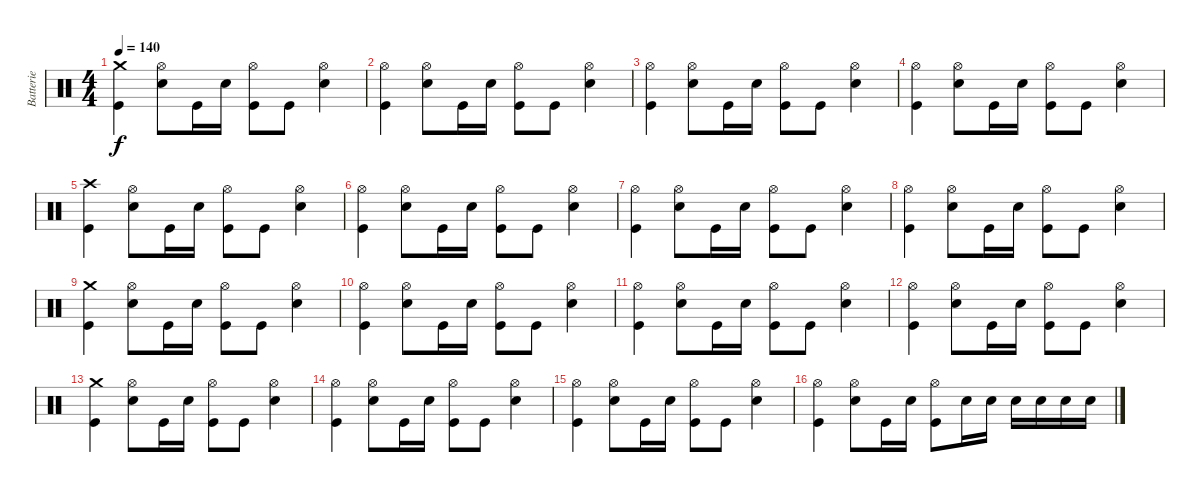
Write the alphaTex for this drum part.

\track ("Batterie" "Batterie") {instrument percussion}
\staff {score}
\articulation defaults
\ts (4 4)
\tempo 140
\clef neutral
\ks c
("Crash medium (hit)" "Kick (hit)").4{dy f} ("Hi-Hat (open)" "Electric Snare (hit)").8 "Kick (hit)".16 "Electric Snare (hit)".16 ("Hi-Hat (open)" "Kick (hit)").8 "Kick (hit)".8 ("Hi-Hat (open)" "Electric Snare (hit)").4 |
("Hi-Hat (open)" "Kick (hit)").4 ("Hi-Hat (open)" "Electric Snare (hit)").8 "Kick (hit)".16 "Electric Snare (hit)".16 ("Hi-Hat (open)" "Kick (hit)").8 "Kick (hit)".8 ("Hi-Hat (open)" "Electric Snare (hit)").4 |
("Hi-Hat (open)" "Kick (hit)").4 ("Hi-Hat (open)" "Electric Snare (hit)").8 "Kick (hit)".16 "Electric Snare (hit)".16 ("Hi-Hat (open)" "Kick (hit)").8 "Kick (hit)".8 ("Hi-Hat (open)" "Electric Snare (hit)").4 |
("Hi-Hat (open)" "Kick (hit)").4 ("Hi-Hat (open)" "Electric Snare (hit)").8 "Kick (hit)".16 "Electric Snare (hit)".16 ("Hi-Hat (open)" "Kick (hit)").8 "Kick (hit)".8 ("Hi-Hat (open)" "Electric Snare (hit)").4 |
("Crash high (hit)" "Kick (hit)").4 ("Hi-Hat (open)" "Electric Snare (hit)").8 "Kick (hit)".16 "Electric Snare (hit)".16 ("Hi-Hat (open)" "Kick (hit)").8 "Kick (hit)".8 ("Hi-Hat (open)" "Electric Snare (hit)").4 |
("Hi-Hat (open)" "Kick (hit)").4 ("Hi-Hat (open)" "Electric Snare (hit)").8 "Kick (hit)".16 "Electric Snare (hit)".16 ("Hi-Hat (open)" "Kick (hit)").8 "Kick (hit)".8 ("Hi-Hat (open)" "Electric Snare (hit)").4 |
("Hi-Hat (open)" "Kick (hit)").4 ("Hi-Hat (open)" "Electric Snare (hit)").8 "Kick (hit)".16 "Electric Snare (hit)".16 ("Hi-Hat (open)" "Kick (hit)").8 "Kick (hit)".8 ("Hi-Hat (open)" "Electric Snare (hit)").4 |
("Hi-Hat (open)" "Kick (hit)").4 ("Hi-Hat (open)" "Electric Snare (hit)").8 "Kick (hit)".16 "Electric Snare (hit)".16 ("Hi-Hat (open)" "Kick (hit)").8 "Kick (hit)".8 ("Hi-Hat (open)" "Electric Snare (hit)").4 |
("Crash medium (hit)" "Kick (hit)").4 ("Hi-Hat (open)" "Electric Snare (hit)").8 "Kick (hit)".16 "Electric Snare (hit)".16 ("Hi-Hat (open)" "Kick (hit)").8 "Kick (hit)".8 ("Hi-Hat (open)" "Electric Snare (hit)").4 |
("Hi-Hat (open)" "Kick (hit)").4 ("Hi-Hat (open)" "Electric Snare (hit)").8 "Kick (hit)".16 "Electric Snare (hit)".16 ("Hi-Hat (open)" "Kick (hit)").8 "Kick (hit)".8 ("Hi-Hat (open)" "Electric Snare (hit)").4 |
("Hi-Hat (open)" "Kick (hit)").4 ("Hi-Hat (open)" "Electric Snare (hit)").8 "Kick (hit)".16 "Electric Snare (hit)".16 ("Hi-Hat (open)" "Kick (hit)").8 "Kick (hit)".8 ("Hi-Hat (open)" "Electric Snare (hit)").4 |
("Hi-Hat (open)" "Kick (hit)").4 ("Hi-Hat (open)" "Electric Snare (hit)").8 "Kick (hit)".16 "Electric Snare (hit)".16 ("Hi-Hat (open)" "Kick (hit)").8 "Kick (hit)".8 ("Hi-Hat (open)" "Electric Snare (hit)").4 |
("Crash medium (hit)" "Kick (hit)").4 ("Hi-Hat (open)" "Electric Snare (hit)").8 "Kick (hit)".16 "Electric Snare (hit)".16 ("Hi-Hat (open)" "Kick (hit)").8 "Kick (hit)".8 ("Hi-Hat (open)" "Electric Snare (hit)").4 |
("Hi-Hat (open)" "Kick (hit)").4 ("Hi-Hat (open)" "Electric Snare (hit)").8 "Kick (hit)".16 "Electric Snare (hit)".16 ("Hi-Hat (open)" "Kick (hit)").8 "Kick (hit)".8 ("Hi-Hat (open)" "Electric Snare (hit)").4 |
("Hi-Hat (open)" "Kick (hit)").4 ("Hi-Hat (open)" "Electric Snare (hit)").8 "Kick (hit)".16 "Electric Snare (hit)".16 ("Hi-Hat (open)" "Kick (hit)").8 "Kick (hit)".8 ("Hi-Hat (open)" "Electric Snare (hit)").4 |
("Hi-Hat (open)" "Kick (hit)").4 ("Hi-Hat (open)" "Electric Snare (hit)").8 "Kick (hit)".16 "Electric Snare (hit)".16 ("Hi-Hat (open)" "Kick (hit)").8 "Electric Snare (hit)".16 "Electric Snare (hit)".16 "Electric Snare (hit)".16 "Electric Snare (hit)".16 "Electric Snare (hit)".16 "Electric Snare (hit)".16
